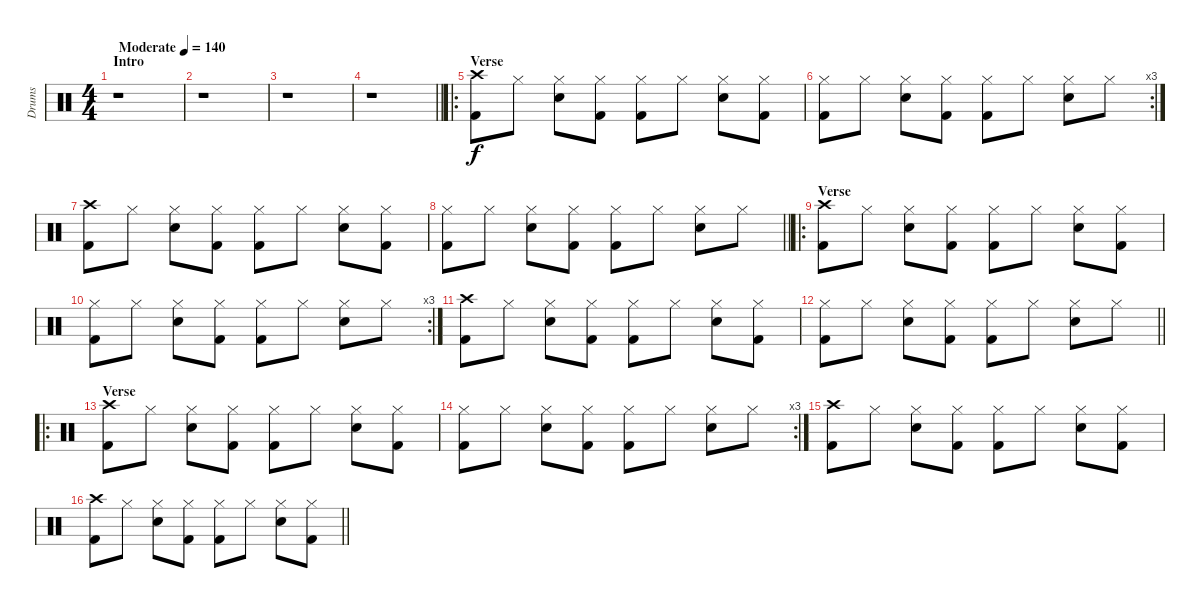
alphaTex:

\track ("Drums" "Drums") {instrument percussion}
\staff {score}
\articulation defaults
\ts (4 4)
\section ("" "Intro")
\tempo (140 "Moderate")
\clef neutral
\ks c
r.1{dy f} |
r.1 |
r.1 |
\barLineRight lightlight
r.1 |
\ro
\section ("" "Verse")
("Kick (hit) 2" "Crash high (hit)").8 "Hi-Hat (closed)".8 ("Hi-Hat (closed)" "Electric Snare (hit)").8 ("Kick (hit) 2" "Hi-Hat (closed)").8 ("Kick (hit) 2" "Hi-Hat (closed)").8 "Hi-Hat (closed)".8 ("Hi-Hat (closed)" "Electric Snare (hit)").8 ("Kick (hit) 2" "Hi-Hat (closed)").8 |
\rc 3
("Kick (hit) 2" "Hi-Hat (closed)").8 "Hi-Hat (closed)".8 ("Hi-Hat (closed)" "Electric Snare (hit)").8 ("Kick (hit) 2" "Hi-Hat (closed)").8 ("Kick (hit) 2" "Hi-Hat (closed)").8 "Hi-Hat (closed)".8 ("Hi-Hat (closed)" "Electric Snare (hit)").8 "Hi-Hat (closed)".8 |
("Kick (hit) 2" "Crash high (hit)").8 "Hi-Hat (closed)".8 ("Hi-Hat (closed)" "Electric Snare (hit)").8 ("Kick (hit) 2" "Hi-Hat (closed)").8 ("Kick (hit) 2" "Hi-Hat (closed)").8 "Hi-Hat (closed)".8 ("Hi-Hat (closed)" "Electric Snare (hit)").8 ("Kick (hit) 2" "Hi-Hat (closed)").8 |
\barLineRight lightlight
("Kick (hit) 2" "Hi-Hat (closed)").8 "Hi-Hat (closed)".8 ("Hi-Hat (closed)" "Electric Snare (hit)").8 ("Kick (hit) 2" "Hi-Hat (closed)").8 ("Kick (hit) 2" "Hi-Hat (closed)").8 "Hi-Hat (closed)".8 ("Hi-Hat (closed)" "Electric Snare (hit)").8 "Hi-Hat (closed)".8 |
\ro
\section ("" "Verse")
("Kick (hit) 2" "Crash high (hit)").8 "Hi-Hat (closed)".8 ("Hi-Hat (closed)" "Electric Snare (hit)").8 ("Kick (hit) 2" "Hi-Hat (closed)").8 ("Kick (hit) 2" "Hi-Hat (closed)").8 "Hi-Hat (closed)".8 ("Hi-Hat (closed)" "Electric Snare (hit)").8 ("Kick (hit) 2" "Hi-Hat (closed)").8 |
\rc 3
("Kick (hit) 2" "Hi-Hat (closed)").8 "Hi-Hat (closed)".8 ("Hi-Hat (closed)" "Electric Snare (hit)").8 ("Kick (hit) 2" "Hi-Hat (closed)").8 ("Kick (hit) 2" "Hi-Hat (closed)").8 "Hi-Hat (closed)".8 ("Hi-Hat (closed)" "Electric Snare (hit)").8 "Hi-Hat (closed)".8 |
("Kick (hit) 2" "Crash high (hit)").8 "Hi-Hat (closed)".8 ("Hi-Hat (closed)" "Electric Snare (hit)").8 ("Kick (hit) 2" "Hi-Hat (closed)").8 ("Kick (hit) 2" "Hi-Hat (closed)").8 "Hi-Hat (closed)".8 ("Hi-Hat (closed)" "Electric Snare (hit)").8 ("Kick (hit) 2" "Hi-Hat (closed)").8 |
\barLineRight lightlight
("Kick (hit) 2" "Hi-Hat (closed)").8 "Hi-Hat (closed)".8 ("Hi-Hat (closed)" "Electric Snare (hit)").8 ("Kick (hit) 2" "Hi-Hat (closed)").8 ("Kick (hit) 2" "Hi-Hat (closed)").8 "Hi-Hat (closed)".8 ("Hi-Hat (closed)" "Electric Snare (hit)").8 "Hi-Hat (closed)".8 |
\ro
\section ("" "Verse")
("Kick (hit) 2" "Crash high (hit)").8 "Hi-Hat (closed)".8 ("Hi-Hat (closed)" "Electric Snare (hit)").8 ("Kick (hit) 2" "Hi-Hat (closed)").8 ("Kick (hit) 2" "Hi-Hat (closed)").8 "Hi-Hat (closed)".8 ("Hi-Hat (closed)" "Electric Snare (hit)").8 ("Kick (hit) 2" "Hi-Hat (closed)").8 |
\rc 3
("Kick (hit) 2" "Hi-Hat (closed)").8 "Hi-Hat (closed)".8 ("Hi-Hat (closed)" "Electric Snare (hit)").8 ("Kick (hit) 2" "Hi-Hat (closed)").8 ("Kick (hit) 2" "Hi-Hat (closed)").8 "Hi-Hat (closed)".8 ("Hi-Hat (closed)" "Electric Snare (hit)").8 "Hi-Hat (closed)".8 |
("Kick (hit) 2" "Crash high (hit)").8 "Hi-Hat (closed)".8 ("Hi-Hat (closed)" "Electric Snare (hit)").8 ("Kick (hit) 2" "Hi-Hat (closed)").8 ("Kick (hit) 2" "Hi-Hat (closed)").8 "Hi-Hat (closed)".8 ("Hi-Hat (closed)" "Electric Snare (hit)").8 ("Kick (hit) 2" "Hi-Hat (closed)").8 |
\barLineRight lightlight
("Kick (hit) 2" "Crash high (hit)").8 "Hi-Hat (closed)".8 ("Hi-Hat (closed)" "Electric Snare (hit)").8 ("Kick (hit) 2" "Hi-Hat (closed)").8 ("Kick (hit) 2" "Hi-Hat (closed)").8 "Hi-Hat (closed)".8 ("Hi-Hat (closed)" "Electric Snare (hit)").8 ("Kick (hit) 2" "Hi-Hat (closed)").8
